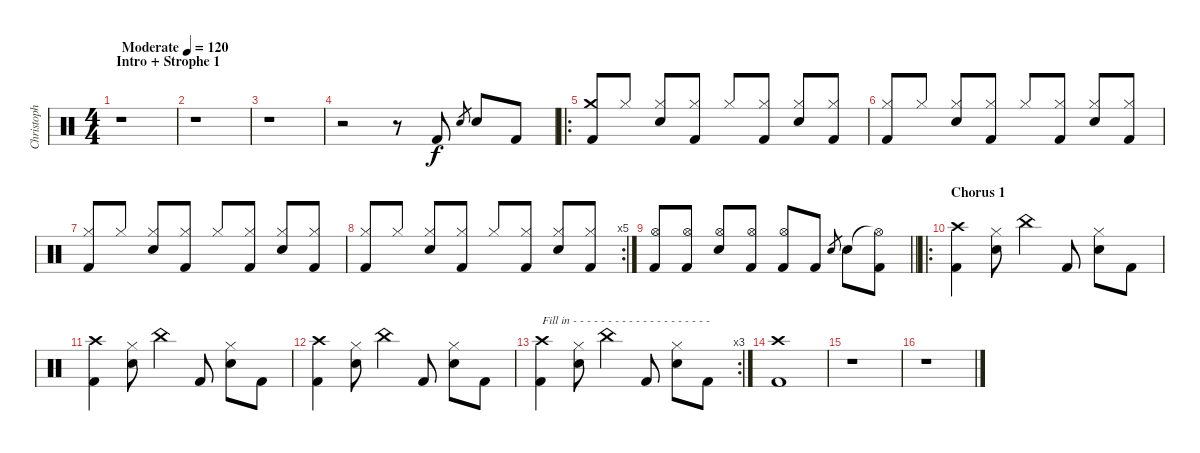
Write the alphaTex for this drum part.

\track ("Christoph" "Christoph") {instrument percussion}
\staff {score}
\articulation defaults
\ts (4 4)
\section ("" "Intro + Strophe 1")
\tempo (120 "Moderate")
\clef neutral
\ks c
r.1{dy f} |
r.1 |
r.1 |
r.2 r.8 "Kick (hit) 2".8 "Snare (hit) 2".8{gr} "Snare (hit) 2".8 "Kick (hit) 2".8 |
\ro
("Crash medium (hit)" "Kick (hit) 2").8{beam Up} "Hi-Hat (closed)".8{beam Up} ("Hi-Hat (closed)" "Snare (hit) 2").8{beam Up} ("Hi-Hat (closed)" "Kick (hit) 2").8{beam Up} "Hi-Hat (closed)".8{beam Up} ("Hi-Hat (closed)" "Kick (hit) 2").8{beam Up} ("Hi-Hat (closed)" "Snare (hit) 2").8{beam Up} ("Hi-Hat (closed)" "Kick (hit) 2").8{beam Up} |
("Hi-Hat (closed)" "Kick (hit) 2").8{beam Up} "Hi-Hat (closed)".8{beam Up} ("Hi-Hat (closed)" "Snare (hit) 2").8{beam Up} ("Hi-Hat (closed)" "Kick (hit) 2").8{beam Up} "Hi-Hat (closed)".8{beam Up} ("Hi-Hat (closed)" "Kick (hit) 2").8{beam Up} ("Hi-Hat (closed)" "Snare (hit) 2").8{beam Up} ("Hi-Hat (closed)" "Kick (hit) 2").8{beam Up} |
("Hi-Hat (closed)" "Kick (hit) 2").8{beam Up} "Hi-Hat (closed)".8{beam Up} ("Hi-Hat (closed)" "Snare (hit) 2").8{beam Up} ("Hi-Hat (closed)" "Kick (hit) 2").8{beam Up} "Hi-Hat (closed)".8{beam Up} ("Hi-Hat (closed)" "Kick (hit) 2").8{beam Up} ("Hi-Hat (closed)" "Snare (hit) 2").8{beam Up} ("Hi-Hat (closed)" "Kick (hit) 2").8{beam Up} |
\rc 5
("Hi-Hat (closed)" "Kick (hit) 2").8{beam Up} "Hi-Hat (closed)".8{beam Up} ("Hi-Hat (closed)" "Snare (hit) 2").8{beam Up} ("Hi-Hat (closed)" "Kick (hit) 2").8{beam Up} "Hi-Hat (closed)".8{beam Up} ("Hi-Hat (closed)" "Kick (hit) 2").8{beam Up} ("Hi-Hat (closed)" "Snare (hit) 2").8{beam Up} ("Hi-Hat (closed)" "Kick (hit) 2").8{beam Up} |
\barLineRight lightlight
("Hi-Hat (open)" "Kick (hit) 2").8{beam Up} ("Hi-Hat (open)" "Kick (hit) 2").8{beam Up} ("Hi-Hat (open)" "Snare (hit) 2").8{beam Up} ("Hi-Hat (open)" "Kick (hit) 2").8{beam Up} ("Hi-Hat (open)" "Kick (hit) 2").8{beam Up} "Kick (hit) 2".8{beam Up} "Snare (hit) 2".8{gr} "Snare (hit) 2".8{beam Down} ("Hi-Hat (open)"{t} "Kick (hit) 2").8{beam Down} |
\ro
\section ("" "Chorus 1")
("Crash high (hit)" "Kick (hit) 2").4 ("Hi-Hat (closed)" "Snare (hit) 2").8 "China (hit)".4 "Kick (hit) 2".8 ("Hi-Hat (closed)" "Snare (hit) 2").8 "Kick (hit) 2".8 |
("Crash high (hit)" "Kick (hit) 2").4 ("Hi-Hat (closed)" "Snare (hit) 2").8 "China (hit)".4 "Kick (hit) 2".8 ("Hi-Hat (closed)" "Snare (hit) 2").8 "Kick (hit) 2".8 |
("Crash high (hit)" "Kick (hit) 2").4 ("Hi-Hat (closed)" "Snare (hit) 2").8 "China (hit)".4 "Kick (hit) 2".8 ("Hi-Hat (closed)" "Snare (hit) 2").8 "Kick (hit) 2".8 |
\rc 3
("Crash high (hit)" "Kick (hit) 2").4{txt "Fill in - - - - - - - - - - - - - - - - - - - -"} ("Hi-Hat (closed)" "Snare (hit) 2").8 "China (hit)".4 "Kick (hit) 2".8 ("Hi-Hat (closed)" "Snare (hit) 2").8 "Kick (hit) 2".8 |
("Crash high (hit)" "Kick (hit) 2").1 |
r.1 |
r.1
